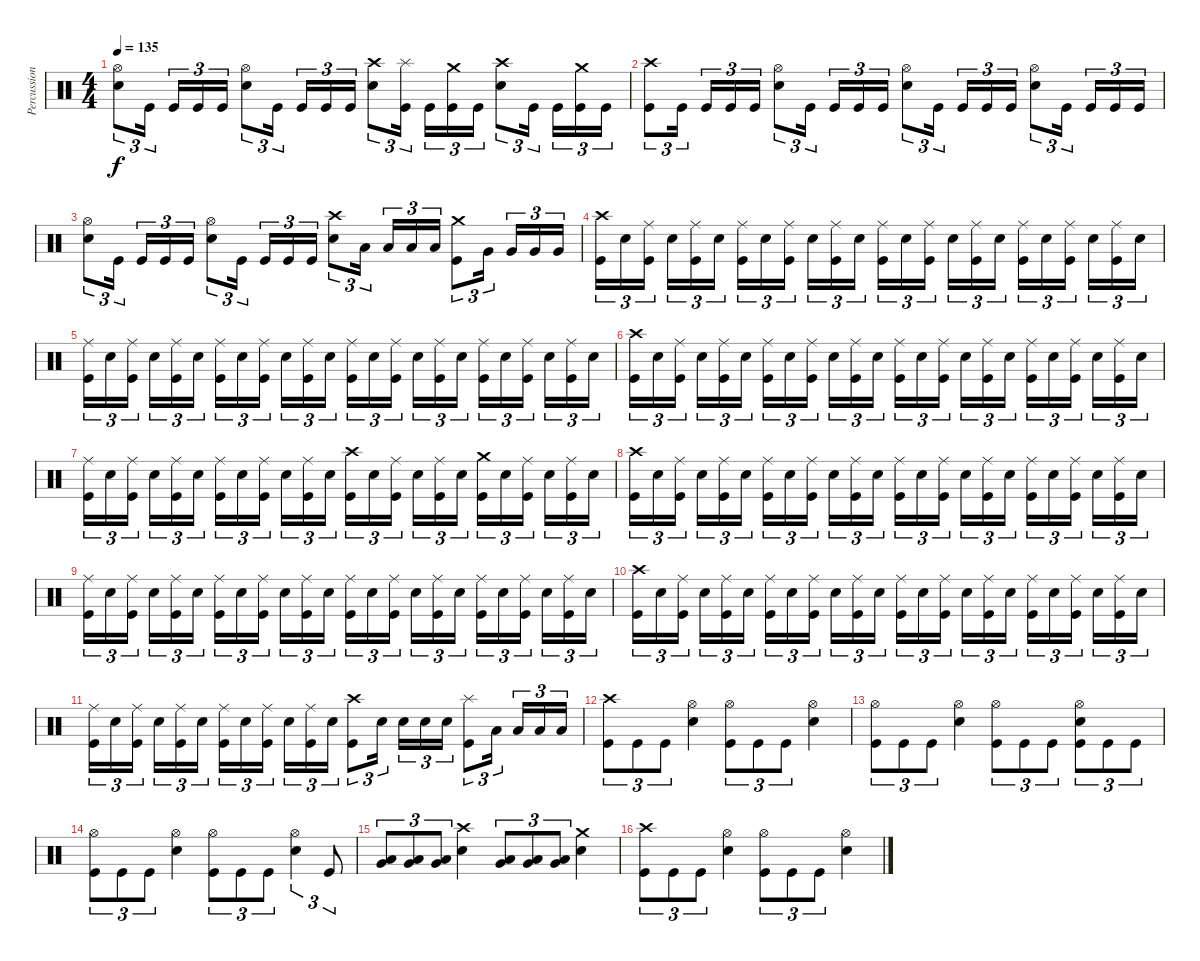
\track ("Percussions" "Percussion") {instrument percussion}
\staff {score}
\articulation defaults
\ts (4 4)
\tempo 135
\clef neutral
\ks c
("Hi-Hat (open)" "Electric Snare (hit)").8{tu (3 2) dy f} "Kick (hit)".16{tu (3 2) beam splitsecondary} "Kick (hit)".16{tu (3 2)} "Kick (hit)".16{tu (3 2)} "Kick (hit)".16{tu (3 2)} ("Hi-Hat (open)" "Electric Snare (hit)").8{tu (3 2)} "Kick (hit)".16{tu (3 2) beam splitsecondary} "Kick (hit)".16{tu (3 2)} "Kick (hit)".16{tu (3 2)} "Kick (hit)".16{tu (3 2)} ("Crash high (hit)" "Electric Snare (hit)").8{tu (3 2)} ("Splash (hit)" "Kick (hit)").16{tu (3 2) beam splitsecondary} "Kick (hit)".16{tu (3 2)} ("Crash medium (hit)" "Kick (hit)").16{tu (3 2)} "Kick (hit)".16{tu (3 2)} ("Crash high (hit)" "Electric Snare (hit)").8{tu (3 2)} "Kick (hit)".16{tu (3 2) beam splitsecondary} "Kick (hit)".16{tu (3 2)} ("Crash medium (hit)" "Kick (hit)").16{tu (3 2)} "Kick (hit)".16{tu (3 2)} |
("Crash high (hit)" "Kick (hit)").8{tu (3 2)} "Kick (hit)".16{tu (3 2) beam splitsecondary} "Kick (hit)".16{tu (3 2)} "Kick (hit)".16{tu (3 2)} "Kick (hit)".16{tu (3 2)} ("Hi-Hat (open)" "Electric Snare (hit)").8{tu (3 2)} "Kick (hit)".16{tu (3 2) beam splitsecondary} "Kick (hit)".16{tu (3 2)} "Kick (hit)".16{tu (3 2)} "Kick (hit)".16{tu (3 2)} ("Hi-Hat (open)" "Electric Snare (hit)").8{tu (3 2)} "Kick (hit)".16{tu (3 2) beam splitsecondary} "Kick (hit)".16{tu (3 2)} "Kick (hit)".16{tu (3 2)} "Kick (hit)".16{tu (3 2)} ("Hi-Hat (open)" "Electric Snare (hit)").8{tu (3 2)} "Kick (hit)".16{tu (3 2) beam splitsecondary} "Kick (hit)".16{tu (3 2)} "Kick (hit)".16{tu (3 2)} "Kick (hit)".16{tu (3 2)} |
("Hi-Hat (open)" "Electric Snare (hit)").8{tu (3 2)} "Kick (hit)".16{tu (3 2) beam splitsecondary} "Kick (hit)".16{tu (3 2)} "Kick (hit)".16{tu (3 2)} "Kick (hit)".16{tu (3 2)} ("Hi-Hat (open)" "Electric Snare (hit)").8{tu (3 2)} "Kick (hit)".16{tu (3 2) beam splitsecondary} "Kick (hit)".16{tu (3 2)} "Kick (hit)".16{tu (3 2)} "Kick (hit)".16{tu (3 2)} ("Crash high (hit)" "Electric Snare (hit)").8{tu (3 2)} "Low Tom (hit)".16{tu (3 2) beam splitsecondary} "Low Tom (hit)".16{tu (3 2)} "Low Tom (hit)".16{tu (3 2)} "Low Tom (hit)".16{tu (3 2)} ("Crash medium (hit)" "Kick (hit)").8{tu (3 2)} "Very Low Tom (hit)".16{tu (3 2) beam splitsecondary} "Very Low Tom (hit)".16{tu (3 2)} "Very Low Tom (hit)".16{tu (3 2)} "Very Low Tom (hit)".16{tu (3 2)} |
("Crash high (hit)" "Kick (hit)").16{tu (3 2)} "Electric Snare (hit)".16{tu (3 2)} ("Ride (middle)" "Kick (hit)").16{tu (3 2) beam splitsecondary} "Electric Snare (hit)".16{tu (3 2)} ("Ride (middle)" "Kick (hit)").16{tu (3 2)} "Electric Snare (hit)".16{tu (3 2)} ("Ride (middle)" "Kick (hit)").16{tu (3 2)} "Electric Snare (hit)".16{tu (3 2)} ("Ride (middle)" "Kick (hit)").16{tu (3 2) beam splitsecondary} "Electric Snare (hit)".16{tu (3 2)} ("Ride (middle)" "Kick (hit)").16{tu (3 2)} "Electric Snare (hit)".16{tu (3 2)} ("Ride (middle)" "Kick (hit)").16{tu (3 2)} "Electric Snare (hit)".16{tu (3 2)} ("Ride (middle)" "Kick (hit)").16{tu (3 2) beam splitsecondary} "Electric Snare (hit)".16{tu (3 2)} ("Ride (middle)" "Kick (hit)").16{tu (3 2)} "Electric Snare (hit)".16{tu (3 2)} ("Ride (middle)" "Kick (hit)").16{tu (3 2)} "Electric Snare (hit)".16{tu (3 2)} ("Ride (middle)" "Kick (hit)").16{tu (3 2) beam splitsecondary} "Electric Snare (hit)".16{tu (3 2)} ("Ride (middle)" "Kick (hit)").16{tu (3 2)} "Electric Snare (hit)".16{tu (3 2)} |
("Ride (middle)" "Kick (hit)").16{tu (3 2)} "Electric Snare (hit)".16{tu (3 2)} ("Ride (middle)" "Kick (hit)").16{tu (3 2) beam splitsecondary} "Electric Snare (hit)".16{tu (3 2)} ("Ride (middle)" "Kick (hit)").16{tu (3 2)} "Electric Snare (hit)".16{tu (3 2)} ("Ride (middle)" "Kick (hit)").16{tu (3 2)} "Electric Snare (hit)".16{tu (3 2)} ("Ride (middle)" "Kick (hit)").16{tu (3 2) beam splitsecondary} "Electric Snare (hit)".16{tu (3 2)} ("Ride (middle)" "Kick (hit)").16{tu (3 2)} "Electric Snare (hit)".16{tu (3 2)} ("Ride (middle)" "Kick (hit)").16{tu (3 2)} "Electric Snare (hit)".16{tu (3 2)} ("Ride (middle)" "Kick (hit)").16{tu (3 2) beam splitsecondary} "Electric Snare (hit)".16{tu (3 2)} ("Ride (middle)" "Kick (hit)").16{tu (3 2)} "Electric Snare (hit)".16{tu (3 2)} ("Ride (middle)" "Kick (hit)").16{tu (3 2)} "Electric Snare (hit)".16{tu (3 2)} ("Ride (middle)" "Kick (hit)").16{tu (3 2) beam splitsecondary} "Electric Snare (hit)".16{tu (3 2)} ("Ride (middle)" "Kick (hit)").16{tu (3 2)} "Electric Snare (hit)".16{tu (3 2)} |
("Crash high (hit)" "Kick (hit)").16{tu (3 2)} "Electric Snare (hit)".16{tu (3 2)} ("Ride (middle)" "Kick (hit)").16{tu (3 2) beam splitsecondary} "Electric Snare (hit)".16{tu (3 2)} ("Ride (middle)" "Kick (hit)").16{tu (3 2)} "Electric Snare (hit)".16{tu (3 2)} ("Ride (middle)" "Kick (hit)").16{tu (3 2)} "Electric Snare (hit)".16{tu (3 2)} ("Ride (middle)" "Kick (hit)").16{tu (3 2) beam splitsecondary} "Electric Snare (hit)".16{tu (3 2)} ("Ride (middle)" "Kick (hit)").16{tu (3 2)} "Electric Snare (hit)".16{tu (3 2)} ("Ride (middle)" "Kick (hit)").16{tu (3 2)} "Electric Snare (hit)".16{tu (3 2)} ("Ride (middle)" "Kick (hit)").16{tu (3 2) beam splitsecondary} "Electric Snare (hit)".16{tu (3 2)} ("Ride (middle)" "Kick (hit)").16{tu (3 2)} "Electric Snare (hit)".16{tu (3 2)} ("Ride (middle)" "Kick (hit)").16{tu (3 2)} "Electric Snare (hit)".16{tu (3 2)} ("Ride (middle)" "Kick (hit)").16{tu (3 2) beam splitsecondary} "Electric Snare (hit)".16{tu (3 2)} ("Ride (middle)" "Kick (hit)").16{tu (3 2)} "Electric Snare (hit)".16{tu (3 2)} |
("Ride (middle)" "Kick (hit)").16{tu (3 2)} "Electric Snare (hit)".16{tu (3 2)} ("Ride (middle)" "Kick (hit)").16{tu (3 2) beam splitsecondary} "Electric Snare (hit)".16{tu (3 2)} ("Ride (middle)" "Kick (hit)").16{tu (3 2)} "Electric Snare (hit)".16{tu (3 2)} ("Ride (middle)" "Kick (hit)").16{tu (3 2)} "Electric Snare (hit)".16{tu (3 2)} ("Ride (middle)" "Kick (hit)").16{tu (3 2) beam splitsecondary} "Electric Snare (hit)".16{tu (3 2)} ("Ride (middle)" "Kick (hit)").16{tu (3 2)} "Electric Snare (hit)".16{tu (3 2)} ("Crash high (hit)" "Kick (hit)").16{tu (3 2)} "Electric Snare (hit)".16{tu (3 2)} ("Ride (middle)" "Kick (hit)").16{tu (3 2) beam splitsecondary} "Electric Snare (hit)".16{tu (3 2)} ("Ride (middle)" "Kick (hit)").16{tu (3 2)} "Electric Snare (hit)".16{tu (3 2)} ("Crash medium (hit)" "Kick (hit)").16{tu (3 2)} "Electric Snare (hit)".16{tu (3 2)} ("Ride (middle)" "Kick (hit)").16{tu (3 2) beam splitsecondary} "Electric Snare (hit)".16{tu (3 2)} ("Ride (middle)" "Kick (hit)").16{tu (3 2)} "Electric Snare (hit)".16{tu (3 2)} |
("Crash high (hit)" "Kick (hit)").16{tu (3 2)} "Electric Snare (hit)".16{tu (3 2)} ("Ride (middle)" "Kick (hit)").16{tu (3 2) beam splitsecondary} "Electric Snare (hit)".16{tu (3 2)} ("Ride (middle)" "Kick (hit)").16{tu (3 2)} "Electric Snare (hit)".16{tu (3 2)} ("Ride (middle)" "Kick (hit)").16{tu (3 2)} "Electric Snare (hit)".16{tu (3 2)} ("Ride (middle)" "Kick (hit)").16{tu (3 2) beam splitsecondary} "Electric Snare (hit)".16{tu (3 2)} ("Ride (middle)" "Kick (hit)").16{tu (3 2)} "Electric Snare (hit)".16{tu (3 2)} ("Ride (middle)" "Kick (hit)").16{tu (3 2)} "Electric Snare (hit)".16{tu (3 2)} ("Ride (middle)" "Kick (hit)").16{tu (3 2) beam splitsecondary} "Electric Snare (hit)".16{tu (3 2)} ("Ride (middle)" "Kick (hit)").16{tu (3 2)} "Electric Snare (hit)".16{tu (3 2)} ("Ride (middle)" "Kick (hit)").16{tu (3 2)} "Electric Snare (hit)".16{tu (3 2)} ("Ride (middle)" "Kick (hit)").16{tu (3 2) beam splitsecondary} "Electric Snare (hit)".16{tu (3 2)} ("Ride (middle)" "Kick (hit)").16{tu (3 2)} "Electric Snare (hit)".16{tu (3 2)} |
("Ride (middle)" "Kick (hit)").16{tu (3 2)} "Electric Snare (hit)".16{tu (3 2)} ("Ride (middle)" "Kick (hit)").16{tu (3 2) beam splitsecondary} "Electric Snare (hit)".16{tu (3 2)} ("Ride (middle)" "Kick (hit)").16{tu (3 2)} "Electric Snare (hit)".16{tu (3 2)} ("Ride (middle)" "Kick (hit)").16{tu (3 2)} "Electric Snare (hit)".16{tu (3 2)} ("Ride (middle)" "Kick (hit)").16{tu (3 2) beam splitsecondary} "Electric Snare (hit)".16{tu (3 2)} ("Ride (middle)" "Kick (hit)").16{tu (3 2)} "Electric Snare (hit)".16{tu (3 2)} ("Ride (middle)" "Kick (hit)").16{tu (3 2)} "Electric Snare (hit)".16{tu (3 2)} ("Ride (middle)" "Kick (hit)").16{tu (3 2) beam splitsecondary} "Electric Snare (hit)".16{tu (3 2)} ("Ride (middle)" "Kick (hit)").16{tu (3 2)} "Electric Snare (hit)".16{tu (3 2)} ("Ride (middle)" "Kick (hit)").16{tu (3 2)} "Electric Snare (hit)".16{tu (3 2)} ("Ride (middle)" "Kick (hit)").16{tu (3 2) beam splitsecondary} "Electric Snare (hit)".16{tu (3 2)} ("Ride (middle)" "Kick (hit)").16{tu (3 2)} "Electric Snare (hit)".16{tu (3 2)} |
("Crash high (hit)" "Kick (hit)").16{tu (3 2)} "Electric Snare (hit)".16{tu (3 2)} ("Ride (middle)" "Kick (hit)").16{tu (3 2) beam splitsecondary} "Electric Snare (hit)".16{tu (3 2)} ("Ride (middle)" "Kick (hit)").16{tu (3 2)} "Electric Snare (hit)".16{tu (3 2)} ("Ride (middle)" "Kick (hit)").16{tu (3 2)} "Electric Snare (hit)".16{tu (3 2)} ("Ride (middle)" "Kick (hit)").16{tu (3 2) beam splitsecondary} "Electric Snare (hit)".16{tu (3 2)} ("Ride (middle)" "Kick (hit)").16{tu (3 2)} "Electric Snare (hit)".16{tu (3 2)} ("Ride (middle)" "Kick (hit)").16{tu (3 2)} "Electric Snare (hit)".16{tu (3 2)} ("Ride (middle)" "Kick (hit)").16{tu (3 2) beam splitsecondary} "Electric Snare (hit)".16{tu (3 2)} ("Ride (middle)" "Kick (hit)").16{tu (3 2)} "Electric Snare (hit)".16{tu (3 2)} ("Ride (middle)" "Kick (hit)").16{tu (3 2)} "Electric Snare (hit)".16{tu (3 2)} ("Ride (middle)" "Kick (hit)").16{tu (3 2) beam splitsecondary} "Electric Snare (hit)".16{tu (3 2)} ("Ride (middle)" "Kick (hit)").16{tu (3 2)} "Electric Snare (hit)".16{tu (3 2)} |
("Ride (middle)" "Kick (hit)").16{tu (3 2)} "Electric Snare (hit)".16{tu (3 2)} ("Ride (middle)" "Kick (hit)").16{tu (3 2) beam splitsecondary} "Electric Snare (hit)".16{tu (3 2)} ("Ride (middle)" "Kick (hit)").16{tu (3 2)} "Electric Snare (hit)".16{tu (3 2)} ("Ride (middle)" "Kick (hit)").16{tu (3 2)} "Electric Snare (hit)".16{tu (3 2)} ("Ride (middle)" "Kick (hit)").16{tu (3 2) beam splitsecondary} "Electric Snare (hit)".16{tu (3 2)} ("Ride (middle)" "Kick (hit)").16{tu (3 2)} "Electric Snare (hit)".16{tu (3 2)} ("Crash high (hit)" "Kick (hit)").8{tu (3 2)} "Electric Snare (hit)".16{tu (3 2) beam splitsecondary} "Electric Snare (hit)".16{tu (3 2)} "Electric Snare (hit)".16{tu (3 2)} "Electric Snare (hit)".16{tu (3 2)} ("Splash (hit)" "Kick (hit)").8{tu (3 2)} "Low Tom (hit)".16{tu (3 2) beam splitsecondary} "Low Tom (hit)".16{tu (3 2)} "Low Tom (hit)".16{tu (3 2)} "Low Tom (hit)".16{tu (3 2)} |
("Crash high (hit)" "Kick (hit)").8{tu (3 2)} "Kick (hit)".8{tu (3 2)} "Kick (hit)".8{tu (3 2)} ("Hi-Hat (open)" "Electric Snare (hit)").4 ("Hi-Hat (open)" "Kick (hit)").8{tu (3 2)} "Kick (hit)".8{tu (3 2)} "Kick (hit)".8{tu (3 2)} ("Hi-Hat (open)" "Electric Snare (hit)").4 |
("Hi-Hat (open)" "Kick (hit)").8{tu (3 2)} "Kick (hit)".8{tu (3 2)} "Kick (hit)".8{tu (3 2)} ("Hi-Hat (open)" "Electric Snare (hit)").4 ("Hi-Hat (open)" "Kick (hit)").8{tu (3 2)} "Kick (hit)".8{tu (3 2)} "Kick (hit)".8{tu (3 2)} ("Hi-Hat (open)" "Electric Snare (hit)" "Kick (hit)").8{tu (3 2)} "Kick (hit)".8{tu (3 2)} "Kick (hit)".8{tu (3 2)} |
("Hi-Hat (open)" "Kick (hit)").8{tu (3 2)} "Kick (hit)".8{tu (3 2)} "Kick (hit)".8{tu (3 2)} ("Hi-Hat (open)" "Electric Snare (hit)").4 ("Hi-Hat (open)" "Kick (hit)").8{tu (3 2)} "Kick (hit)".8{tu (3 2)} "Kick (hit)".8{tu (3 2)} ("Hi-Hat (open)" "Electric Snare (hit)").4{tu (3 2)} "Kick (hit)".8{tu (3 2)} |
("Low Tom (hit)" "Very Low Tom (hit)").8{tu (3 2)} ("Low Tom (hit)" "Very Low Tom (hit)").8{tu (3 2)} ("Low Tom (hit)" "Very Low Tom (hit)").8{tu (3 2)} ("Crash high (hit)" "Electric Snare (hit)").4 ("Low Tom (hit)" "Very Low Tom (hit)").8{tu (3 2)} ("Low Tom (hit)" "Very Low Tom (hit)").8{tu (3 2)} ("Low Tom (hit)" "Very Low Tom (hit)").8{tu (3 2)} ("Crash medium (hit)" "Electric Snare (hit)").4 |
("Crash high (hit)" "Kick (hit)").8{tu (3 2)} "Kick (hit)".8{tu (3 2)} "Kick (hit)".8{tu (3 2)} ("Hi-Hat (open)" "Electric Snare (hit)").4 ("Hi-Hat (open)" "Kick (hit)").8{tu (3 2)} "Kick (hit)".8{tu (3 2)} "Kick (hit)".8{tu (3 2)} ("Hi-Hat (open)" "Electric Snare (hit)").4
